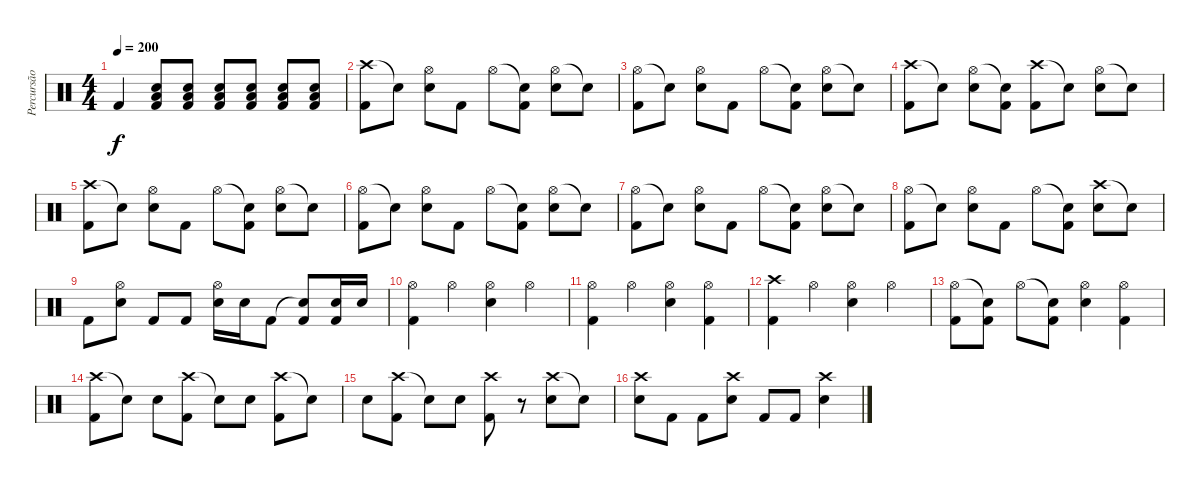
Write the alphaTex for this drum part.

\track ("Percursão" "Percursão") {instrument percussion}
\staff {score}
\articulation defaults
\ts (4 4)
\tempo 200
\clef neutral
\ks c "Kick (hit) 2".4{dy f}
("Electric Snare (hit)" "Low Tom (hit)" "Kick (hit) 2").8 ("Electric Snare (hit)" "Low Tom (hit)" "Kick (hit) 2").8 ("Electric Snare (hit)" "Low Tom (hit)" "Kick (hit) 2").8 ("Electric Snare (hit)" "Low Tom (hit)" "Kick (hit) 2").8 ("Electric Snare (hit)" "Low Tom (hit)" "Kick (hit) 2").8 ("Electric Snare (hit)" "Low Tom (hit)" "Kick (hit) 2").8 |
("Crash high (hit)" "Kick (hit) 2").8 "Snare (hit)"{t}.8 ("Hi-Hat (open)" "Electric Snare (hit)").8 "Kick (hit) 2".8 "Hi-Hat (open)".8 ("Snare (hit)"{t} "Kick (hit) 2").8 ("Hi-Hat (open)" "Electric Snare (hit)").8 "Snare (hit)"{t}.8 |
("Hi-Hat (open)" "Kick (hit) 2").8 "Snare (hit)"{t}.8 ("Hi-Hat (open)" "Electric Snare (hit)").8 "Kick (hit) 2".8 "Hi-Hat (open)".8 ("Snare (hit)"{t} "Kick (hit) 2").8 ("Hi-Hat (open)" "Electric Snare (hit)").8 "Snare (hit)"{t}.8 |
("Crash high (hit)" "Kick (hit) 2").8 "Snare (hit)"{t}.8 ("Hi-Hat (open)" "Electric Snare (hit)").8 ("Snare (hit)"{t} "Kick (hit) 2").8 ("Crash high (hit)" "Kick (hit) 2").8 "Snare (hit)"{t}.8 ("Hi-Hat (open)" "Electric Snare (hit)").8 "Snare (hit)"{t}.8 |
("Crash high (hit)" "Kick (hit) 2").8 "Snare (hit)"{t}.8 ("Hi-Hat (open)" "Electric Snare (hit)").8 "Kick (hit) 2".8 "Hi-Hat (open)".8 ("Snare (hit)"{t} "Kick (hit) 2").8 ("Hi-Hat (open)" "Electric Snare (hit)").8 "Snare (hit)"{t}.8 |
("Hi-Hat (open)" "Kick (hit) 2").8 "Snare (hit)"{t}.8 ("Hi-Hat (open)" "Electric Snare (hit)").8 "Kick (hit) 2".8 "Hi-Hat (open)".8 ("Snare (hit)"{t} "Kick (hit) 2").8 ("Hi-Hat (open)" "Electric Snare (hit)").8 "Snare (hit)"{t}.8 |
("Hi-Hat (open)" "Kick (hit) 2").8 "Snare (hit)"{t}.8 ("Hi-Hat (open)" "Electric Snare (hit)").8 "Kick (hit) 2".8 "Hi-Hat (open)".8 ("Snare (hit)"{t} "Kick (hit) 2").8 ("Hi-Hat (open)" "Electric Snare (hit)").8 "Snare (hit)"{t}.8 |
("Hi-Hat (open)" "Kick (hit) 2").8 "Snare (hit)"{t}.8 ("Hi-Hat (open)" "Electric Snare (hit)").8 "Kick (hit) 2".8 "Hi-Hat (open)".8 ("Snare (hit)"{t} "Kick (hit) 2").8 ("Crash high (hit)" "Electric Snare (hit)").8 "Snare (hit)"{t}.8 |
"Kick (hit) 2".8 ("Hi-Hat (open)" "Electric Snare (hit)").8 "Kick (hit) 2".8 "Kick (hit) 2".8 ("Hi-Hat (open)" "Electric Snare (hit)").16 "Electric Snare (hit)".16 "Kick (hit) 2".8 ("Snare (hit)"{t} "Kick (hit) 2").8 ("Electric Snare (hit)" "Kick (hit) 2").16 "Electric Snare (hit)".16 |
("Hi-Hat (open)" "Kick (hit) 2").4 "Hi-Hat (open)".4 ("Hi-Hat (open)" "Electric Snare (hit)").4 "Hi-Hat (open)".4 |
("Hi-Hat (open)" "Kick (hit) 2").4 "Hi-Hat (open)".4 ("Hi-Hat (open)" "Electric Snare (hit)").4 ("Hi-Hat (open)" "Kick (hit) 2").4 |
("Crash high (hit)" "Kick (hit) 2").4 "Hi-Hat (open)".4 ("Hi-Hat (open)" "Electric Snare (hit)").4 "Hi-Hat (open)".4 |
("Hi-Hat (open)" "Kick (hit) 2").8 ("Snare (hit)"{t} "Kick (hit) 2").8 "Hi-Hat (open)".8 ("Snare (hit)"{t} "Kick (hit) 2").8 ("Hi-Hat (open)" "Electric Snare (hit)").4 ("Hi-Hat (open)" "Kick (hit) 2").4 |
("Crash high (hit)" "Kick (hit) 2").8 "Snare (hit)"{t}.8 "Electric Snare (hit)".8 ("Crash high (hit)" "Kick (hit) 2").8 "Snare (hit)"{t}.8 "Electric Snare (hit)".8 ("Crash high (hit)" "Kick (hit) 2").8 "Snare (hit)"{t}.8 |
"Electric Snare (hit)".8 ("Crash high (hit)" "Kick (hit) 2").8 "Snare (hit)"{t}.8 "Electric Snare (hit)".8 ("Crash high (hit)" "Kick (hit) 2").8 r.8 ("Crash high (hit)" "Electric Snare (hit)").8 "Snare (hit)"{t}.8 |
("Crash high (hit)" "Electric Snare (hit)").8 "Kick (hit) 2".8 "Kick (hit) 2".8 ("Crash high (hit)" "Electric Snare (hit)").8 "Kick (hit) 2".8 "Kick (hit) 2".8 ("Crash high (hit)" "Electric Snare (hit)").4
